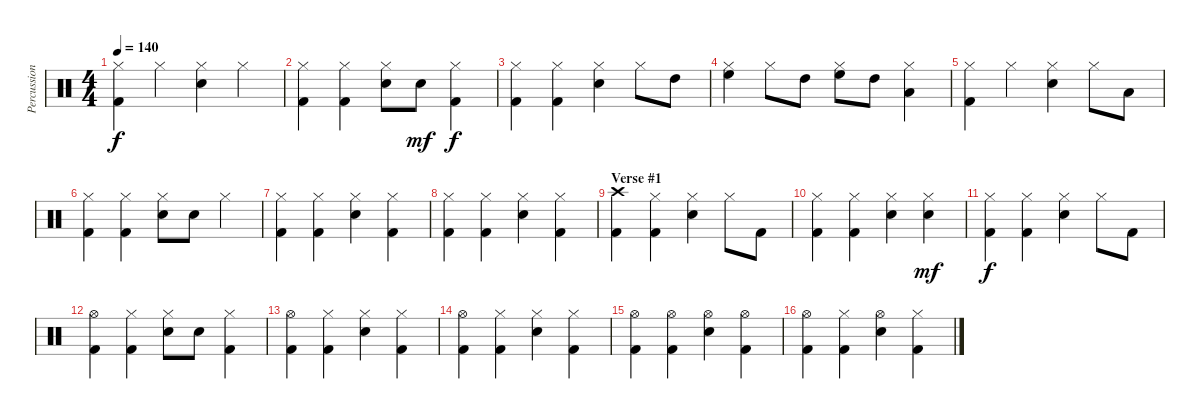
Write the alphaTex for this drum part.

\track ("Percussion" "Percussion") {instrument percussion}
\staff {score}
\articulation defaults
\ts (4 4)
\tempo 140
\clef neutral
\ks c
("Hi-Hat (closed)" "Kick (hit) 2").4{dy f} "Hi-Hat (closed)".4 ("Hi-Hat (closed)" "Electric Snare (hit)").4 "Hi-Hat (closed)".4 |
("Hi-Hat (closed)" "Kick (hit) 2").4 ("Hi-Hat (closed)" "Kick (hit) 2").4 ("Hi-Hat (closed)" "Electric Snare (hit)").8 "Electric Snare (hit)".8{dy mf} ("Hi-Hat (closed)" "Kick (hit) 2").4{dy f} |
("Hi-Hat (closed)" "Kick (hit) 2").4 ("Hi-Hat (closed)" "Kick (hit) 2").4 ("Hi-Hat (closed)" "Electric Snare (hit)").4 "Hi-Hat (closed)".8 "High Tom (hit)".8 |
("Hi-Hat (closed)" "High Floor Tom (hit)").4 "Hi-Hat (closed)".8 "High Tom (hit)".8 ("Hi-Hat (closed)" "High Floor Tom (hit)").8 "High Tom (hit)".8 ("Hi-Hat (closed)" "Low Tom (hit)").4 |
("Hi-Hat (closed)" "Kick (hit) 2").4 "Hi-Hat (closed)".4 ("Hi-Hat (closed)" "Electric Snare (hit)").4 "Hi-Hat (closed)".8 "Low Tom (hit)".8 |
("Hi-Hat (closed)" "Kick (hit) 2").4 ("Hi-Hat (closed)" "Kick (hit) 2").4 ("Hi-Hat (closed)" "Electric Snare (hit)").8 "Electric Snare (hit)".8 "Hi-Hat (closed)".4 |
("Hi-Hat (closed)" "Kick (hit) 2").4 ("Hi-Hat (closed)" "Kick (hit) 2").4 ("Hi-Hat (closed)" "Electric Snare (hit)").4 ("Hi-Hat (closed)" "Kick (hit) 2").4 |
("Hi-Hat (closed)" "Kick (hit) 2").4 ("Hi-Hat (closed)" "Kick (hit) 2").4 ("Hi-Hat (closed)" "Electric Snare (hit)").4 ("Hi-Hat (closed)" "Kick (hit) 2").4 |
\section ("" "Verse #1")
("Crash high (hit)" "Kick (hit) 2").4 ("Hi-Hat (closed)" "Kick (hit) 2").4 ("Hi-Hat (closed)" "Electric Snare (hit)").4 "Hi-Hat (closed)".8 "Kick (hit) 2".8 |
("Hi-Hat (closed)" "Kick (hit) 2").4 ("Hi-Hat (closed)" "Kick (hit) 2").4 ("Hi-Hat (closed)" "Electric Snare (hit)").4 ("Hi-Hat (closed)" "Electric Snare (hit)").4{dy mf} |
("Hi-Hat (closed)" "Kick (hit) 2").4{dy f} ("Hi-Hat (closed)" "Kick (hit) 2").4 ("Hi-Hat (closed)" "Electric Snare (hit)").4 "Hi-Hat (closed)".8 "Kick (hit) 2".8 |
("Hi-Hat (open)" "Kick (hit) 2").4 ("Hi-Hat (closed)" "Kick (hit) 2").4 ("Hi-Hat (closed)" "Electric Snare (hit)").8 "Electric Snare (hit)".8 ("Hi-Hat (closed)" "Kick (hit) 2").4 |
("Hi-Hat (open)" "Kick (hit) 2").4 ("Hi-Hat (closed)" "Kick (hit) 2").4 ("Hi-Hat (closed)" "Electric Snare (hit)").4 ("Hi-Hat (closed)" "Kick (hit) 2").4 |
("Hi-Hat (open)" "Kick (hit) 2").4 ("Hi-Hat (closed)" "Kick (hit) 2").4 ("Hi-Hat (closed)" "Electric Snare (hit)").4 ("Hi-Hat (closed)" "Kick (hit) 2").4 |
("Hi-Hat (open)" "Kick (hit) 2").4 ("Hi-Hat (open)" "Kick (hit) 2").4 ("Hi-Hat (open)" "Electric Snare (hit)").4 ("Hi-Hat (open)" "Kick (hit) 2").4 |
("Hi-Hat (open)" "Kick (hit) 2").4 ("Hi-Hat (closed)" "Kick (hit) 2").4 ("Hi-Hat (open)" "Electric Snare (hit)").4 ("Hi-Hat (closed)" "Kick (hit) 2").4
